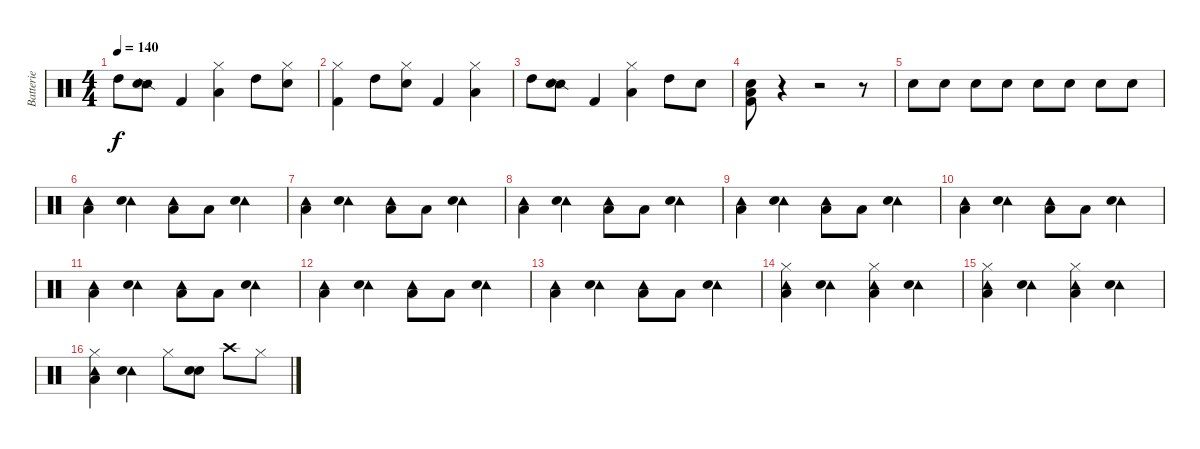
\track ("Batterie" "Batterie") {instrument percussion}
\staff {score}
\articulation defaults
\ts (4 4)
\tempo 140
\clef neutral
\ks c "High Tom (hit)".8{dy f}
("Snare (side stick) 2" "Snare (hit) 2").8 "Kick (hit) 2".4 ("Hi-Hat (closed)" "Low Floor Tom (hit)").4 "High Tom (hit)".8 ("Hi-Hat (closed)" "Snare (hit) 2").8 |
("Hi-Hat (closed)" "Kick (hit) 2").4 "High Tom (hit)".8 ("Hi-Hat (closed)" "Snare (hit) 2").8 "Kick (hit) 2".4 ("Hi-Hat (closed)" "Low Floor Tom (hit)").4 |
"High Tom (hit)".8 ("Snare (side stick) 2" "Snare (hit) 2").8 "Kick (hit) 2".4 ("Hi-Hat (closed)" "Low Floor Tom (hit)").4 "High Tom (hit)".8 "Snare (hit) 2".8 |
("Kick (hit) 2" "Low Floor Tom (hit)" "Snare (hit) 2").8 r.4 r.2 r.8 |
"Snare (hit) 2".8 "Snare (hit) 2".8 "Snare (hit) 2".8 "Snare (hit) 2".8 "Snare (hit) 2".8 "Snare (hit) 2".8 "Snare (hit) 2".8 "Snare (hit) 2".8 |
("Tambourine (hit)" "Low Floor Tom (hit)").4 ("Tambourine (hit)" "Electric Snare (hit)").4 ("Tambourine (hit)" "Low Floor Tom (hit)").8 "Low Floor Tom (hit)".8 ("Tambourine (hit)" "Electric Snare (hit)").4 |
("Tambourine (hit)" "Low Floor Tom (hit)").4 ("Tambourine (hit)" "Electric Snare (hit)").4 ("Tambourine (hit)" "Low Floor Tom (hit)").8 "Low Floor Tom (hit)".8 ("Tambourine (hit)" "Electric Snare (hit)").4 |
("Tambourine (hit)" "Low Floor Tom (hit)").4 ("Tambourine (hit)" "Electric Snare (hit)").4 ("Tambourine (hit)" "Low Floor Tom (hit)").8 "Low Floor Tom (hit)".8 ("Tambourine (hit)" "Electric Snare (hit)").4 |
("Tambourine (hit)" "Low Floor Tom (hit)").4 ("Tambourine (hit)" "Electric Snare (hit)").4 ("Tambourine (hit)" "Low Floor Tom (hit)").8 "Low Floor Tom (hit)".8 ("Tambourine (hit)" "Electric Snare (hit)").4 |
("Tambourine (hit)" "Low Floor Tom (hit)").4 ("Tambourine (hit)" "Electric Snare (hit)").4 ("Tambourine (hit)" "Low Floor Tom (hit)").8 "Low Floor Tom (hit)".8 ("Tambourine (hit)" "Electric Snare (hit)").4 |
("Tambourine (hit)" "Low Floor Tom (hit)").4 ("Tambourine (hit)" "Electric Snare (hit)").4 ("Tambourine (hit)" "Low Floor Tom (hit)").8 "Low Floor Tom (hit)".8 ("Tambourine (hit)" "Electric Snare (hit)").4 |
("Tambourine (hit)" "Low Floor Tom (hit)").4 ("Tambourine (hit)" "Electric Snare (hit)").4 ("Tambourine (hit)" "Low Floor Tom (hit)").8 "Low Floor Tom (hit)".8 ("Tambourine (hit)" "Electric Snare (hit)").4 |
("Tambourine (hit)" "Low Floor Tom (hit)").4 ("Tambourine (hit)" "Electric Snare (hit)").4 ("Tambourine (hit)" "Low Floor Tom (hit)").8 "Low Floor Tom (hit)".8 ("Tambourine (hit)" "Electric Snare (hit)").4 |
("Tambourine (hit)" "Hi-Hat (closed)" "Low Floor Tom (hit)").4 ("Tambourine (hit)" "Electric Snare (hit)").4 ("Tambourine (hit)" "Hi-Hat (closed)" "Low Floor Tom (hit)").4 ("Tambourine (hit)" "Electric Snare (hit)").4 |
("Tambourine (hit)" "Hi-Hat (closed)" "Low Floor Tom (hit)").4 ("Tambourine (hit)" "Electric Snare (hit)").4 ("Tambourine (hit)" "Hi-Hat (closed)" "Low Floor Tom (hit)").4 ("Tambourine (hit)" "Electric Snare (hit)").4 |
("Tambourine (hit)" "Hi-Hat (closed)" "Low Floor Tom (hit)").4 ("Tambourine (hit)" "Electric Snare (hit)").4 "Hi-Hat (closed)".8 ("Snare (hit) 2" "Electric Snare (hit)").8 "Crash high (hit)".8 "Hi-Hat (closed)".8
